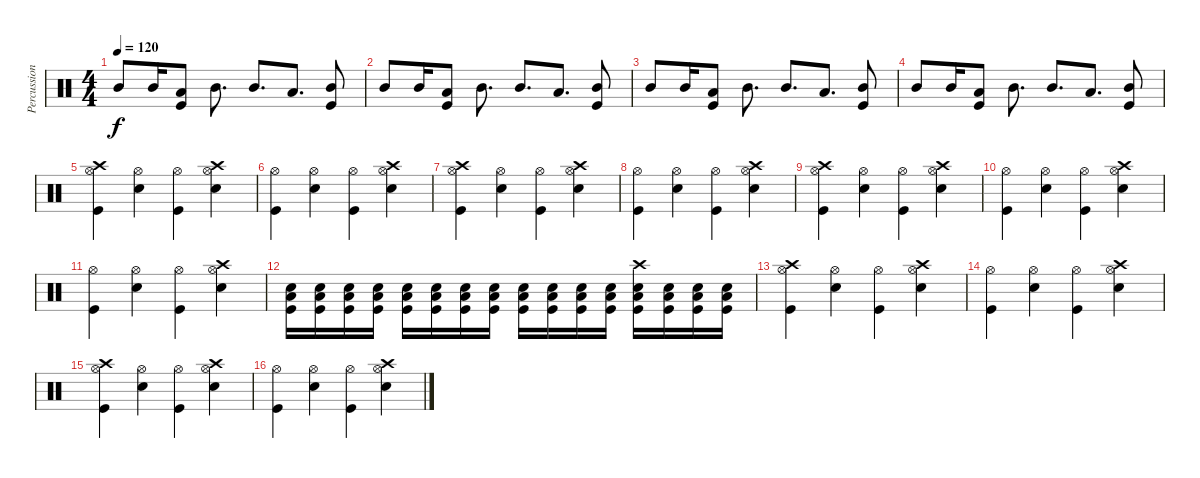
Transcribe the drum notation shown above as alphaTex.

\track ("Percussion" "Percussion") {instrument percussion}
\staff {score}
\articulation defaults
\ts (4 4)
\tempo 120
\clef neutral
\ks c "Mid Tom (hit)".8{dy f} "Mid Tom (hit)".16
("Low Tom (hit)" "Kick (hit)").8 "Mid Tom (hit)".8{d} "Mid Tom (hit)".8{d} "Low Tom (hit)".8{d} ("Mid Tom (hit)" "Kick (hit)").8 |
"Mid Tom (hit)".8 "Mid Tom (hit)".16 ("Low Tom (hit)" "Kick (hit)").8 "Mid Tom (hit)".8{d} "Mid Tom (hit)".8{d} "Low Tom (hit)".8{d} ("Mid Tom (hit)" "Kick (hit)").8 |
"Mid Tom (hit)".8 "Mid Tom (hit)".16 ("Low Tom (hit)" "Kick (hit)").8 "Mid Tom (hit)".8{d} "Mid Tom (hit)".8{d} "Low Tom (hit)".8{d} ("Mid Tom (hit)" "Kick (hit)").8 |
"Mid Tom (hit)".8 "Mid Tom (hit)".16 ("Low Tom (hit)" "Kick (hit)").8 "Mid Tom (hit)".8{d} "Mid Tom (hit)".8{d} "Low Tom (hit)".8{d} ("Mid Tom (hit)" "Kick (hit)").8 |
("Crash high (hit)" "Hi-Hat (open)" "Kick (hit)").4 ("Hi-Hat (open)" "Snare (hit) 2").4 ("Hi-Hat (open)" "Kick (hit)").4 ("Crash high (hit)" "Hi-Hat (open)" "Snare (hit) 2").4 |
("Hi-Hat (open)" "Kick (hit)").4 ("Hi-Hat (open)" "Snare (hit) 2").4 ("Hi-Hat (open)" "Kick (hit)").4 ("Crash high (hit)" "Hi-Hat (open)" "Snare (hit) 2").4 |
("Crash high (hit)" "Hi-Hat (open)" "Kick (hit)").4 ("Hi-Hat (open)" "Snare (hit) 2").4 ("Hi-Hat (open)" "Kick (hit)").4 ("Crash high (hit)" "Hi-Hat (open)" "Snare (hit) 2").4 |
("Hi-Hat (open)" "Kick (hit)").4 ("Hi-Hat (open)" "Snare (hit) 2").4 ("Hi-Hat (open)" "Kick (hit)").4 ("Crash high (hit)" "Hi-Hat (open)" "Snare (hit) 2").4 |
("Crash high (hit)" "Hi-Hat (open)" "Kick (hit)").4 ("Hi-Hat (open)" "Snare (hit) 2").4 ("Hi-Hat (open)" "Kick (hit)").4 ("Crash high (hit)" "Hi-Hat (open)" "Snare (hit) 2").4 |
("Hi-Hat (open)" "Kick (hit)").4 ("Hi-Hat (open)" "Snare (hit) 2").4 ("Hi-Hat (open)" "Kick (hit)").4 ("Crash high (hit)" "Hi-Hat (open)" "Snare (hit) 2").4 |
("Hi-Hat (open)" "Kick (hit)").4 ("Hi-Hat (open)" "Snare (hit) 2").4 ("Hi-Hat (open)" "Kick (hit)").4 ("Crash high (hit)" "Hi-Hat (open)" "Snare (hit) 2").4 |
("Low Tom (hit)" "Snare (hit) 2" "Kick (hit)").16 ("Low Tom (hit)" "Snare (hit) 2" "Kick (hit)").16 ("Low Tom (hit)" "Snare (hit) 2" "Kick (hit)").16 ("Low Tom (hit)" "Snare (hit) 2" "Kick (hit)").16 ("Low Tom (hit)" "Snare (hit) 2" "Kick (hit)").16 ("Low Tom (hit)" "Snare (hit) 2" "Kick (hit)").16 ("Low Tom (hit)" "Snare (hit) 2" "Kick (hit)").16 ("Low Tom (hit)" "Snare (hit) 2" "Kick (hit)").16 ("Low Tom (hit)" "Snare (hit) 2" "Kick (hit)").16 ("Low Tom (hit)" "Snare (hit) 2" "Kick (hit)").16 ("Low Tom (hit)" "Snare (hit) 2" "Kick (hit)").16 ("Low Tom (hit)" "Snare (hit) 2" "Kick (hit)").16 ("Crash high (hit)" "Low Tom (hit)" "Snare (hit) 2" "Kick (hit)").16 ("Low Tom (hit)" "Snare (hit) 2" "Kick (hit)").16 ("Low Tom (hit)" "Snare (hit) 2" "Kick (hit)").16 ("Low Tom (hit)" "Snare (hit) 2" "Kick (hit)").16 |
("Crash high (hit)" "Hi-Hat (open)" "Kick (hit)").4 ("Hi-Hat (open)" "Snare (hit) 2").4 ("Hi-Hat (open)" "Kick (hit)").4 ("Crash high (hit)" "Hi-Hat (open)" "Snare (hit) 2").4 |
("Hi-Hat (open)" "Kick (hit)").4 ("Hi-Hat (open)" "Snare (hit) 2").4 ("Hi-Hat (open)" "Kick (hit)").4 ("Crash high (hit)" "Hi-Hat (open)" "Snare (hit) 2").4 |
("Crash high (hit)" "Hi-Hat (open)" "Kick (hit)").4 ("Hi-Hat (open)" "Snare (hit) 2").4 ("Hi-Hat (open)" "Kick (hit)").4 ("Crash high (hit)" "Hi-Hat (open)" "Snare (hit) 2").4 |
("Hi-Hat (open)" "Kick (hit)").4 ("Hi-Hat (open)" "Snare (hit) 2").4 ("Hi-Hat (open)" "Kick (hit)").4 ("Crash high (hit)" "Hi-Hat (open)" "Snare (hit) 2").4
